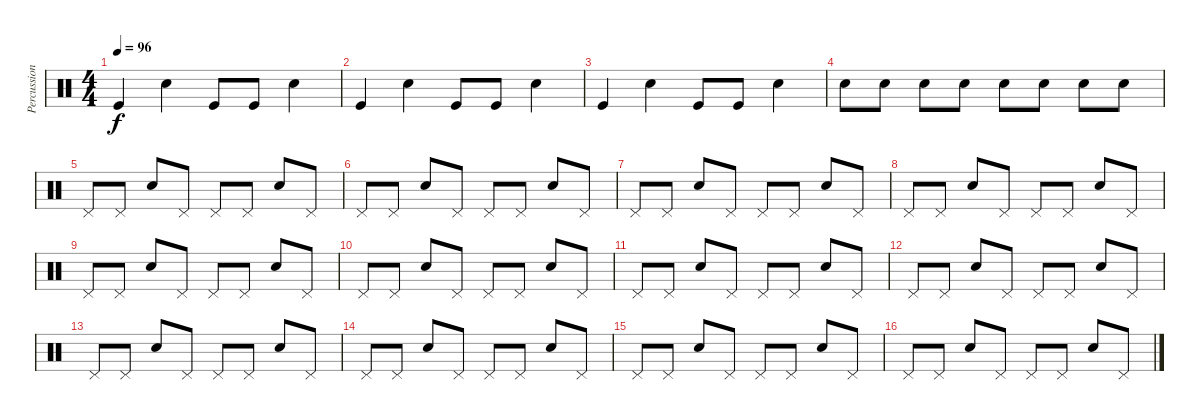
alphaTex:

\track ("Percussions" "Percussion") {instrument percussion}
\staff {score}
\articulation defaults
\ts (4 4)
\tempo 96
\clef neutral
\ks c "Kick (hit)".4{dy f} "Snare (hit) 2".4 "Kick (hit)".8 "Kick (hit)".8 "Snare (hit) 2".4
|
"Kick (hit)".4 "Snare (hit) 2".4 "Kick (hit)".8 "Kick (hit)".8 "Snare (hit) 2".4 |
"Kick (hit)".4 "Snare (hit) 2".4 "Kick (hit)".8 "Kick (hit)".8 "Snare (hit) 2".4 |
"Snare (hit) 2".8 "Snare (hit) 2".8 "Snare (hit) 2".8 "Snare (hit) 2".8 "Snare (hit) 2".8 "Snare (hit) 2".8 "Snare (hit) 2".8 "Snare (hit) 2".8 |
"Pedal Hi-Hat (hit)".8 "Pedal Hi-Hat (hit)".8 "Snare (hit) 2".8 "Pedal Hi-Hat (hit)".8 "Pedal Hi-Hat (hit)".8 "Pedal Hi-Hat (hit)".8 "Snare (hit) 2".8 "Pedal Hi-Hat (hit)".8 |
"Pedal Hi-Hat (hit)".8 "Pedal Hi-Hat (hit)".8 "Snare (hit) 2".8 "Pedal Hi-Hat (hit)".8 "Pedal Hi-Hat (hit)".8 "Pedal Hi-Hat (hit)".8 "Snare (hit) 2".8 "Pedal Hi-Hat (hit)".8 |
"Pedal Hi-Hat (hit)".8 "Pedal Hi-Hat (hit)".8 "Snare (hit) 2".8 "Pedal Hi-Hat (hit)".8 "Pedal Hi-Hat (hit)".8 "Pedal Hi-Hat (hit)".8 "Snare (hit) 2".8 "Pedal Hi-Hat (hit)".8 |
"Pedal Hi-Hat (hit)".8 "Pedal Hi-Hat (hit)".8 "Snare (hit) 2".8 "Pedal Hi-Hat (hit)".8 "Pedal Hi-Hat (hit)".8 "Pedal Hi-Hat (hit)".8 "Snare (hit) 2".8 "Pedal Hi-Hat (hit)".8 |
"Pedal Hi-Hat (hit)".8 "Pedal Hi-Hat (hit)".8 "Snare (hit) 2".8 "Pedal Hi-Hat (hit)".8 "Pedal Hi-Hat (hit)".8 "Pedal Hi-Hat (hit)".8 "Snare (hit) 2".8 "Pedal Hi-Hat (hit)".8 |
"Pedal Hi-Hat (hit)".8 "Pedal Hi-Hat (hit)".8 "Snare (hit) 2".8 "Pedal Hi-Hat (hit)".8 "Pedal Hi-Hat (hit)".8 "Pedal Hi-Hat (hit)".8 "Snare (hit) 2".8 "Pedal Hi-Hat (hit)".8 |
"Pedal Hi-Hat (hit)".8 "Pedal Hi-Hat (hit)".8 "Snare (hit) 2".8 "Pedal Hi-Hat (hit)".8 "Pedal Hi-Hat (hit)".8 "Pedal Hi-Hat (hit)".8 "Snare (hit) 2".8 "Pedal Hi-Hat (hit)".8 |
"Pedal Hi-Hat (hit)".8 "Pedal Hi-Hat (hit)".8 "Snare (hit) 2".8 "Pedal Hi-Hat (hit)".8 "Pedal Hi-Hat (hit)".8 "Pedal Hi-Hat (hit)".8 "Snare (hit) 2".8 "Pedal Hi-Hat (hit)".8 |
"Pedal Hi-Hat (hit)".8 "Pedal Hi-Hat (hit)".8 "Snare (hit) 2".8 "Pedal Hi-Hat (hit)".8 "Pedal Hi-Hat (hit)".8 "Pedal Hi-Hat (hit)".8 "Snare (hit) 2".8 "Pedal Hi-Hat (hit)".8 |
"Pedal Hi-Hat (hit)".8 "Pedal Hi-Hat (hit)".8 "Snare (hit) 2".8 "Pedal Hi-Hat (hit)".8 "Pedal Hi-Hat (hit)".8 "Pedal Hi-Hat (hit)".8 "Snare (hit) 2".8 "Pedal Hi-Hat (hit)".8 |
"Pedal Hi-Hat (hit)".8 "Pedal Hi-Hat (hit)".8 "Snare (hit) 2".8 "Pedal Hi-Hat (hit)".8 "Pedal Hi-Hat (hit)".8 "Pedal Hi-Hat (hit)".8 "Snare (hit) 2".8 "Pedal Hi-Hat (hit)".8 |
"Pedal Hi-Hat (hit)".8 "Pedal Hi-Hat (hit)".8 "Snare (hit) 2".8 "Pedal Hi-Hat (hit)".8 "Pedal Hi-Hat (hit)".8 "Pedal Hi-Hat (hit)".8 "Snare (hit) 2".8 "Pedal Hi-Hat (hit)".8
